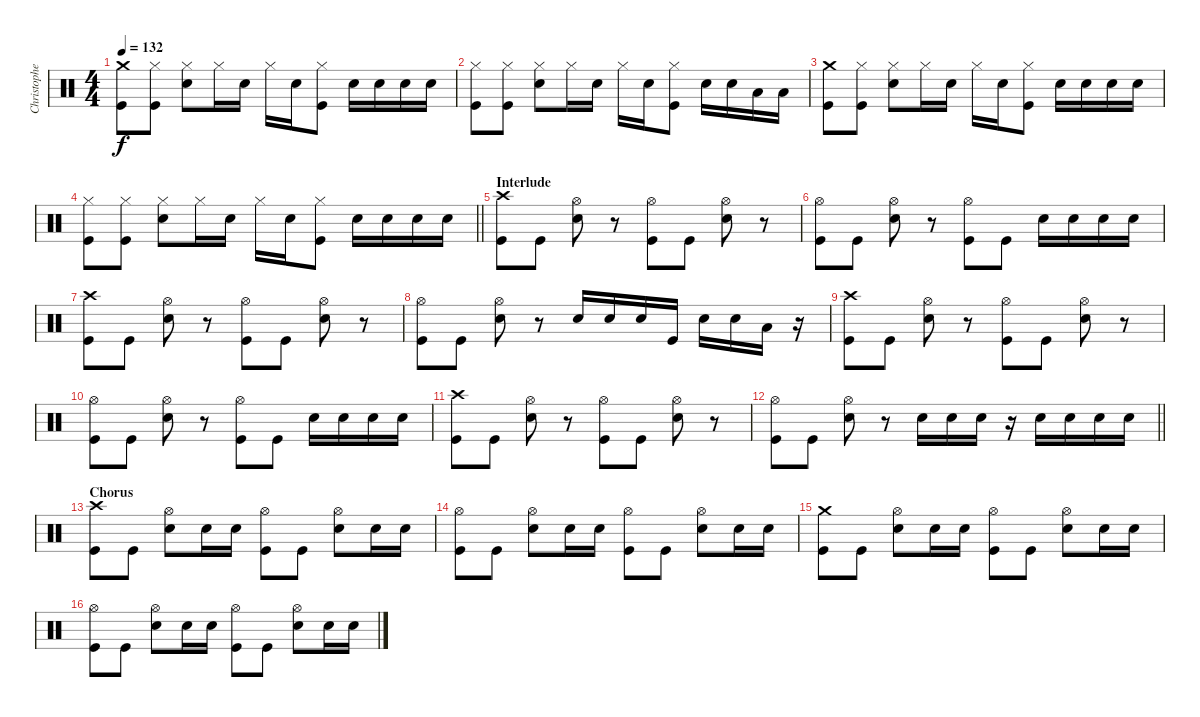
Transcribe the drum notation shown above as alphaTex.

\track ("Christopher - Drums" "Christophe") {instrument percussion}
\staff {score}
\articulation defaults
\ts (4 4)
\tempo 132
\clef neutral
\ks c
("Crash medium (hit)" "Kick (hit)").8{dy f} ("Hi-Hat (closed)" "Kick (hit)").8 ("Hi-Hat (closed)" "Snare (hit) 2").8 "Hi-Hat (closed)".16 "Snare (hit) 2".16 "Hi-Hat (closed)".16 "Snare (hit) 2".16 ("Hi-Hat (closed)" "Kick (hit)").8 "Snare (hit) 2".16 "Snare (hit) 2".16 "Snare (hit) 2".16 "Snare (hit) 2".16 |
("Hi-Hat (closed)" "Kick (hit)").8 ("Hi-Hat (closed)" "Kick (hit)").8 ("Hi-Hat (closed)" "Snare (hit) 2").8 "Hi-Hat (closed)".16 "Snare (hit) 2".16 "Hi-Hat (closed)".16 "Snare (hit) 2".16 ("Hi-Hat (closed)" "Kick (hit)").8 "Snare (hit) 2".16 "Snare (hit) 2".16 "Low Tom (hit)".16 "Low Tom (hit)".16 |
("Crash medium (hit)" "Kick (hit)").8 ("Hi-Hat (closed)" "Kick (hit)").8 ("Hi-Hat (closed)" "Snare (hit) 2").8 "Hi-Hat (closed)".16 "Snare (hit) 2".16 "Hi-Hat (closed)".16 "Snare (hit) 2".16 ("Hi-Hat (closed)" "Kick (hit)").8 "Snare (hit) 2".16 "Snare (hit) 2".16 "Snare (hit) 2".16 "Snare (hit) 2".16 |
\barLineRight lightlight
("Hi-Hat (closed)" "Kick (hit)").8 ("Hi-Hat (closed)" "Kick (hit)").8 ("Hi-Hat (closed)" "Snare (hit) 2").8 "Hi-Hat (closed)".16 "Snare (hit) 2".16 "Hi-Hat (closed)".16 "Snare (hit) 2".16 ("Hi-Hat (closed)" "Kick (hit)").8 "Snare (hit) 2".16 "Snare (hit) 2".16 "Snare (hit) 2".16 "Snare (hit) 2".16 |
\section ("" "Interlude")
("Crash high (hit)" "Kick (hit)").8 "Kick (hit)".8 ("Hi-Hat (open)" "Snare (hit) 2").8 r.8 ("Hi-Hat (open)" "Kick (hit)").8 "Kick (hit)".8 ("Hi-Hat (open)" "Snare (hit) 2").8 r.8 |
("Hi-Hat (open)" "Kick (hit)").8 "Kick (hit)".8 ("Hi-Hat (open)" "Snare (hit) 2").8 r.8 ("Hi-Hat (open)" "Kick (hit)").8 "Kick (hit)".8 "Snare (hit) 2".16 "Snare (hit) 2".16 "Snare (hit) 2".16 "Snare (hit) 2".16 |
("Crash high (hit)" "Kick (hit)").8 "Kick (hit)".8 ("Hi-Hat (open)" "Snare (hit) 2").8 r.8 ("Hi-Hat (open)" "Kick (hit)").8 "Kick (hit)".8 ("Hi-Hat (open)" "Snare (hit) 2").8 r.8 |
("Hi-Hat (open)" "Kick (hit)").8 "Kick (hit)".8 ("Hi-Hat (open)" "Snare (hit) 2").8 r.8 "Snare (hit) 2".16 "Snare (hit) 2".16 "Snare (hit) 2".16 "Kick (hit)".16 "Snare (hit) 2".16 "Snare (hit) 2".16 "Low Tom (hit)".16 r.16 |
("Crash high (hit)" "Kick (hit)").8 "Kick (hit)".8 ("Hi-Hat (open)" "Snare (hit) 2").8 r.8 ("Hi-Hat (open)" "Kick (hit)").8 "Kick (hit)".8 ("Hi-Hat (open)" "Snare (hit) 2").8 r.8 |
("Hi-Hat (open)" "Kick (hit)").8 "Kick (hit)".8 ("Hi-Hat (open)" "Snare (hit) 2").8 r.8 ("Hi-Hat (open)" "Kick (hit)").8 "Kick (hit)".8 "Snare (hit) 2".16 "Snare (hit) 2".16 "Snare (hit) 2".16 "Snare (hit) 2".16 |
("Crash high (hit)" "Kick (hit)").8 "Kick (hit)".8 ("Hi-Hat (open)" "Snare (hit) 2").8 r.8 ("Hi-Hat (open)" "Kick (hit)").8 "Kick (hit)".8 ("Hi-Hat (open)" "Snare (hit) 2").8 r.8 |
\barLineRight lightlight
("Hi-Hat (open)" "Kick (hit)").8 "Kick (hit)".8 ("Hi-Hat (open)" "Snare (hit) 2").8 r.8 "Snare (hit) 2".16 "Snare (hit) 2".16 "Snare (hit) 2".16 r.16 "Snare (hit) 2".16 "Snare (hit) 2".16 "Snare (hit) 2".16 "Snare (hit) 2".16 |
\section ("" "Chorus")
("Crash high (hit)" "Kick (hit)").8 "Kick (hit)".8 ("Hi-Hat (open)" "Snare (hit) 2").8 "Snare (hit) 2".16 "Snare (hit) 2".16 ("Hi-Hat (open)" "Kick (hit)").8 "Kick (hit)".8 ("Hi-Hat (open)" "Snare (hit) 2").8 "Snare (hit) 2".16 "Snare (hit) 2".16 |
("Hi-Hat (open)" "Kick (hit)").8 "Kick (hit)".8 ("Hi-Hat (open)" "Snare (hit) 2").8 "Snare (hit) 2".16 "Snare (hit) 2".16 ("Hi-Hat (open)" "Kick (hit)").8 "Kick (hit)".8 ("Hi-Hat (open)" "Snare (hit) 2").8 "Snare (hit) 2".16 "Snare (hit) 2".16 |
("Crash medium (hit)" "Kick (hit)").8 "Kick (hit)".8 ("Hi-Hat (open)" "Snare (hit) 2").8 "Snare (hit) 2".16 "Snare (hit) 2".16 ("Hi-Hat (open)" "Kick (hit)").8 "Kick (hit)".8 ("Hi-Hat (open)" "Snare (hit) 2").8 "Snare (hit) 2".16 "Snare (hit) 2".16 |
("Hi-Hat (open)" "Kick (hit)").8 "Kick (hit)".8 ("Hi-Hat (open)" "Snare (hit) 2").8 "Snare (hit) 2".16 "Snare (hit) 2".16 ("Hi-Hat (open)" "Kick (hit)").8 "Kick (hit)".8 ("Hi-Hat (open)" "Snare (hit) 2").8 "Snare (hit) 2".16 "Snare (hit) 2".16
